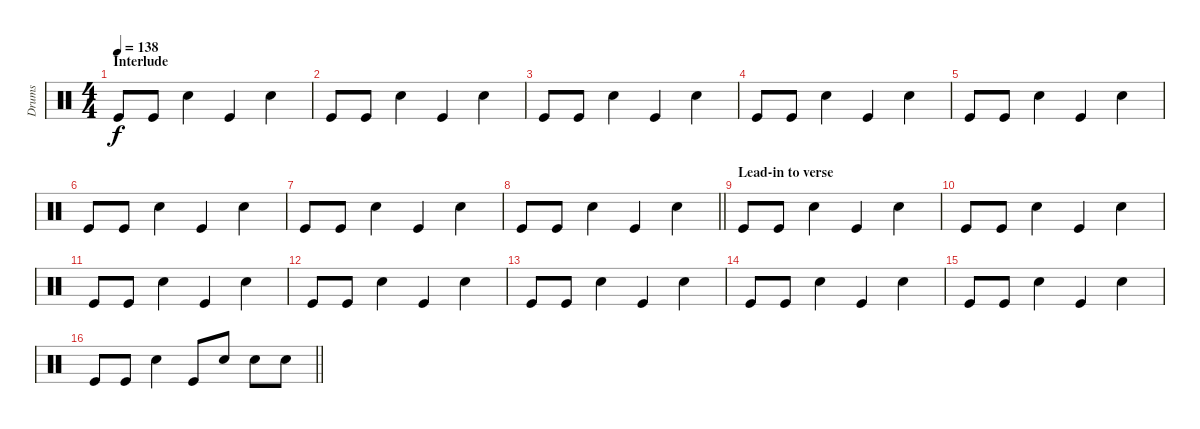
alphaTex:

\track ("Drums" "Drums") {instrument percussion}
\staff {score}
\articulation defaults
\ts (4 4)
\section ("" "Interlude")
\tempo 138
\clef neutral
\ks c "Kick (hit)".8{dy f} "Kick (hit)".8 "Snare (hit) 2".4 "Kick (hit)".4 "Snare (hit) 2".4
|
"Kick (hit)".8 "Kick (hit)".8 "Snare (hit) 2".4 "Kick (hit)".4 "Snare (hit) 2".4 |
"Kick (hit)".8 "Kick (hit)".8 "Snare (hit) 2".4 "Kick (hit)".4 "Snare (hit) 2".4 |
"Kick (hit)".8 "Kick (hit)".8 "Snare (hit) 2".4 "Kick (hit)".4 "Snare (hit) 2".4 |
"Kick (hit)".8 "Kick (hit)".8 "Snare (hit) 2".4 "Kick (hit)".4 "Snare (hit) 2".4 |
"Kick (hit)".8 "Kick (hit)".8 "Snare (hit) 2".4 "Kick (hit)".4 "Snare (hit) 2".4 |
"Kick (hit)".8 "Kick (hit)".8 "Snare (hit) 2".4 "Kick (hit)".4 "Snare (hit) 2".4 |
\barLineRight lightlight "Kick (hit)".8 "Kick (hit)".8 "Snare (hit) 2".4 "Kick (hit)".4 "Snare (hit) 2".4
|
\section ("" "Lead-in to verse")
"Kick (hit)".8 "Kick (hit)".8 "Snare (hit) 2".4 "Kick (hit)".4 "Snare (hit) 2".4 |
"Kick (hit)".8 "Kick (hit)".8 "Snare (hit) 2".4 "Kick (hit)".4 "Snare (hit) 2".4 |
"Kick (hit)".8 "Kick (hit)".8 "Snare (hit) 2".4 "Kick (hit)".4 "Snare (hit) 2".4 |
"Kick (hit)".8 "Kick (hit)".8 "Snare (hit) 2".4 "Kick (hit)".4 "Snare (hit) 2".4 |
"Kick (hit)".8 "Kick (hit)".8 "Snare (hit) 2".4 "Kick (hit)".4 "Snare (hit) 2".4 |
"Kick (hit)".8 "Kick (hit)".8 "Snare (hit) 2".4 "Kick (hit)".4 "Snare (hit) 2".4 |
"Kick (hit)".8 "Kick (hit)".8 "Snare (hit) 2".4 "Kick (hit)".4 "Snare (hit) 2".4 |
\barLineRight lightlight "Kick (hit)".8 "Kick (hit)".8 "Snare (hit) 2".4 "Kick (hit)".8 "Snare (hit) 2".8 "Snare (hit) 2".8 "Snare (hit) 2".8
